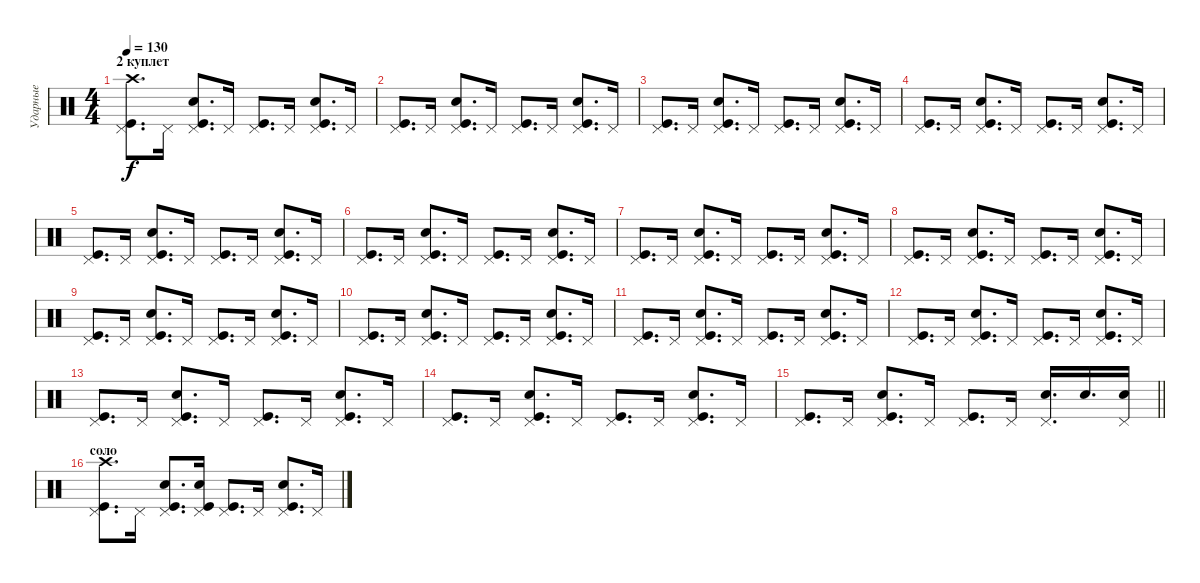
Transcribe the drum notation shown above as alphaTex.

\track ("Ударные" "Ударные") {instrument percussion}
\staff {score}
\articulation defaults
\ts (4 4)
\section ("" "2 куплет")
\tempo 130
\clef neutral
\ks c
("Pedal Hi-Hat (hit)" "Kick (hit)" "Crash high (hit)").8{d dy f} "Pedal Hi-Hat (hit)".16 ("Pedal Hi-Hat (hit)" "Kick (hit)" "Snare (hit) 2").8{d} "Pedal Hi-Hat (hit)".16 ("Pedal Hi-Hat (hit)" "Kick (hit)").8{d} "Pedal Hi-Hat (hit)".16 ("Pedal Hi-Hat (hit)" "Kick (hit)" "Snare (hit) 2").8{d} "Pedal Hi-Hat (hit)".16 |
("Pedal Hi-Hat (hit)" "Kick (hit)").8{d} "Pedal Hi-Hat (hit)".16 ("Pedal Hi-Hat (hit)" "Kick (hit)" "Snare (hit) 2").8{d} "Pedal Hi-Hat (hit)".16 ("Pedal Hi-Hat (hit)" "Kick (hit)").8{d} "Pedal Hi-Hat (hit)".16 ("Pedal Hi-Hat (hit)" "Kick (hit)" "Snare (hit) 2").8{d} "Pedal Hi-Hat (hit)".16 |
("Pedal Hi-Hat (hit)" "Kick (hit)").8{d} "Pedal Hi-Hat (hit)".16 ("Pedal Hi-Hat (hit)" "Kick (hit)" "Snare (hit) 2").8{d} "Pedal Hi-Hat (hit)".16 ("Pedal Hi-Hat (hit)" "Kick (hit)").8{d} "Pedal Hi-Hat (hit)".16 ("Pedal Hi-Hat (hit)" "Kick (hit)" "Snare (hit) 2").8{d} "Pedal Hi-Hat (hit)".16 |
("Pedal Hi-Hat (hit)" "Kick (hit)").8{d} "Pedal Hi-Hat (hit)".16 ("Pedal Hi-Hat (hit)" "Kick (hit)" "Snare (hit) 2").8{d} "Pedal Hi-Hat (hit)".16 ("Pedal Hi-Hat (hit)" "Kick (hit)").8{d} "Pedal Hi-Hat (hit)".16 ("Pedal Hi-Hat (hit)" "Kick (hit)" "Snare (hit) 2").8{d} "Pedal Hi-Hat (hit)".16 |
("Pedal Hi-Hat (hit)" "Kick (hit)").8{d} "Pedal Hi-Hat (hit)".16 ("Pedal Hi-Hat (hit)" "Kick (hit)" "Snare (hit) 2").8{d} "Pedal Hi-Hat (hit)".16 ("Pedal Hi-Hat (hit)" "Kick (hit)").8{d} "Pedal Hi-Hat (hit)".16 ("Pedal Hi-Hat (hit)" "Kick (hit)" "Snare (hit) 2").8{d} "Pedal Hi-Hat (hit)".16 |
("Pedal Hi-Hat (hit)" "Kick (hit)").8{d} "Pedal Hi-Hat (hit)".16 ("Pedal Hi-Hat (hit)" "Kick (hit)" "Snare (hit) 2").8{d} "Pedal Hi-Hat (hit)".16 ("Pedal Hi-Hat (hit)" "Kick (hit)").8{d} "Pedal Hi-Hat (hit)".16 ("Pedal Hi-Hat (hit)" "Kick (hit)" "Snare (hit) 2").8{d} "Pedal Hi-Hat (hit)".16 |
("Pedal Hi-Hat (hit)" "Kick (hit)").8{d} "Pedal Hi-Hat (hit)".16 ("Pedal Hi-Hat (hit)" "Kick (hit)" "Snare (hit) 2").8{d} "Pedal Hi-Hat (hit)".16 ("Pedal Hi-Hat (hit)" "Kick (hit)").8{d} "Pedal Hi-Hat (hit)".16 ("Pedal Hi-Hat (hit)" "Kick (hit)" "Snare (hit) 2").8{d} "Pedal Hi-Hat (hit)".16 |
("Pedal Hi-Hat (hit)" "Kick (hit)").8{d} "Pedal Hi-Hat (hit)".16 ("Pedal Hi-Hat (hit)" "Kick (hit)" "Snare (hit) 2").8{d} "Pedal Hi-Hat (hit)".16 ("Pedal Hi-Hat (hit)" "Kick (hit)").8{d} "Pedal Hi-Hat (hit)".16 ("Pedal Hi-Hat (hit)" "Kick (hit)" "Snare (hit) 2").8{d} "Pedal Hi-Hat (hit)".16 |
("Pedal Hi-Hat (hit)" "Kick (hit)").8{d} "Pedal Hi-Hat (hit)".16 ("Pedal Hi-Hat (hit)" "Kick (hit)" "Snare (hit) 2").8{d} "Pedal Hi-Hat (hit)".16 ("Pedal Hi-Hat (hit)" "Kick (hit)").8{d} "Pedal Hi-Hat (hit)".16 ("Pedal Hi-Hat (hit)" "Kick (hit)" "Snare (hit) 2").8{d} "Pedal Hi-Hat (hit)".16 |
("Pedal Hi-Hat (hit)" "Kick (hit)").8{d} "Pedal Hi-Hat (hit)".16 ("Pedal Hi-Hat (hit)" "Kick (hit)" "Snare (hit) 2").8{d} "Pedal Hi-Hat (hit)".16 ("Pedal Hi-Hat (hit)" "Kick (hit)").8{d} "Pedal Hi-Hat (hit)".16 ("Pedal Hi-Hat (hit)" "Kick (hit)" "Snare (hit) 2").8{d} "Pedal Hi-Hat (hit)".16 |
("Pedal Hi-Hat (hit)" "Kick (hit)").8{d} "Pedal Hi-Hat (hit)".16 ("Pedal Hi-Hat (hit)" "Kick (hit)" "Snare (hit) 2").8{d} "Pedal Hi-Hat (hit)".16 ("Pedal Hi-Hat (hit)" "Kick (hit)").8{d} "Pedal Hi-Hat (hit)".16 ("Pedal Hi-Hat (hit)" "Kick (hit)" "Snare (hit) 2").8{d} "Pedal Hi-Hat (hit)".16 |
("Pedal Hi-Hat (hit)" "Kick (hit)").8{d} "Pedal Hi-Hat (hit)".16 ("Pedal Hi-Hat (hit)" "Kick (hit)" "Snare (hit) 2").8{d} "Pedal Hi-Hat (hit)".16 ("Pedal Hi-Hat (hit)" "Kick (hit)").8{d} "Pedal Hi-Hat (hit)".16 ("Pedal Hi-Hat (hit)" "Kick (hit)" "Snare (hit) 2").8{d} "Pedal Hi-Hat (hit)".16 |
("Pedal Hi-Hat (hit)" "Kick (hit)").8{d} "Pedal Hi-Hat (hit)".16 ("Pedal Hi-Hat (hit)" "Kick (hit)" "Snare (hit) 2").8{d} "Pedal Hi-Hat (hit)".16 ("Pedal Hi-Hat (hit)" "Kick (hit)").8{d} "Pedal Hi-Hat (hit)".16 ("Pedal Hi-Hat (hit)" "Kick (hit)" "Snare (hit) 2").8{d} "Pedal Hi-Hat (hit)".16 |
("Pedal Hi-Hat (hit)" "Kick (hit)").8{d} "Pedal Hi-Hat (hit)".16 ("Pedal Hi-Hat (hit)" "Kick (hit)" "Snare (hit) 2").8{d} "Pedal Hi-Hat (hit)".16 ("Pedal Hi-Hat (hit)" "Kick (hit)").8{d} "Pedal Hi-Hat (hit)".16 ("Pedal Hi-Hat (hit)" "Kick (hit)" "Snare (hit) 2").8{d} "Pedal Hi-Hat (hit)".16 |
\barLineRight lightlight
("Pedal Hi-Hat (hit)" "Kick (hit)").8{d} "Pedal Hi-Hat (hit)".16 ("Pedal Hi-Hat (hit)" "Kick (hit)" "Snare (hit) 2").8{d} "Pedal Hi-Hat (hit)".16 ("Pedal Hi-Hat (hit)" "Kick (hit)").8{d} "Pedal Hi-Hat (hit)".16 ("Pedal Hi-Hat (hit)" "Snare (hit) 2").16{d} "Snare (hit) 2".16{d} ("Snare (hit) 2" "Pedal Hi-Hat (hit)").16 |
\section ("" "соло")
("Pedal Hi-Hat (hit)" "Kick (hit)" "Crash high (hit)").8{d} "Pedal Hi-Hat (hit)".16 ("Pedal Hi-Hat (hit)" "Kick (hit)" "Snare (hit) 2").8{d} ("Pedal Hi-Hat (hit)" "Snare (hit) 2" "Kick (hit)").16 ("Pedal Hi-Hat (hit)" "Kick (hit)").8{d} "Pedal Hi-Hat (hit)".16 ("Pedal Hi-Hat (hit)" "Kick (hit)" "Snare (hit) 2").8{d} "Pedal Hi-Hat (hit)".16
